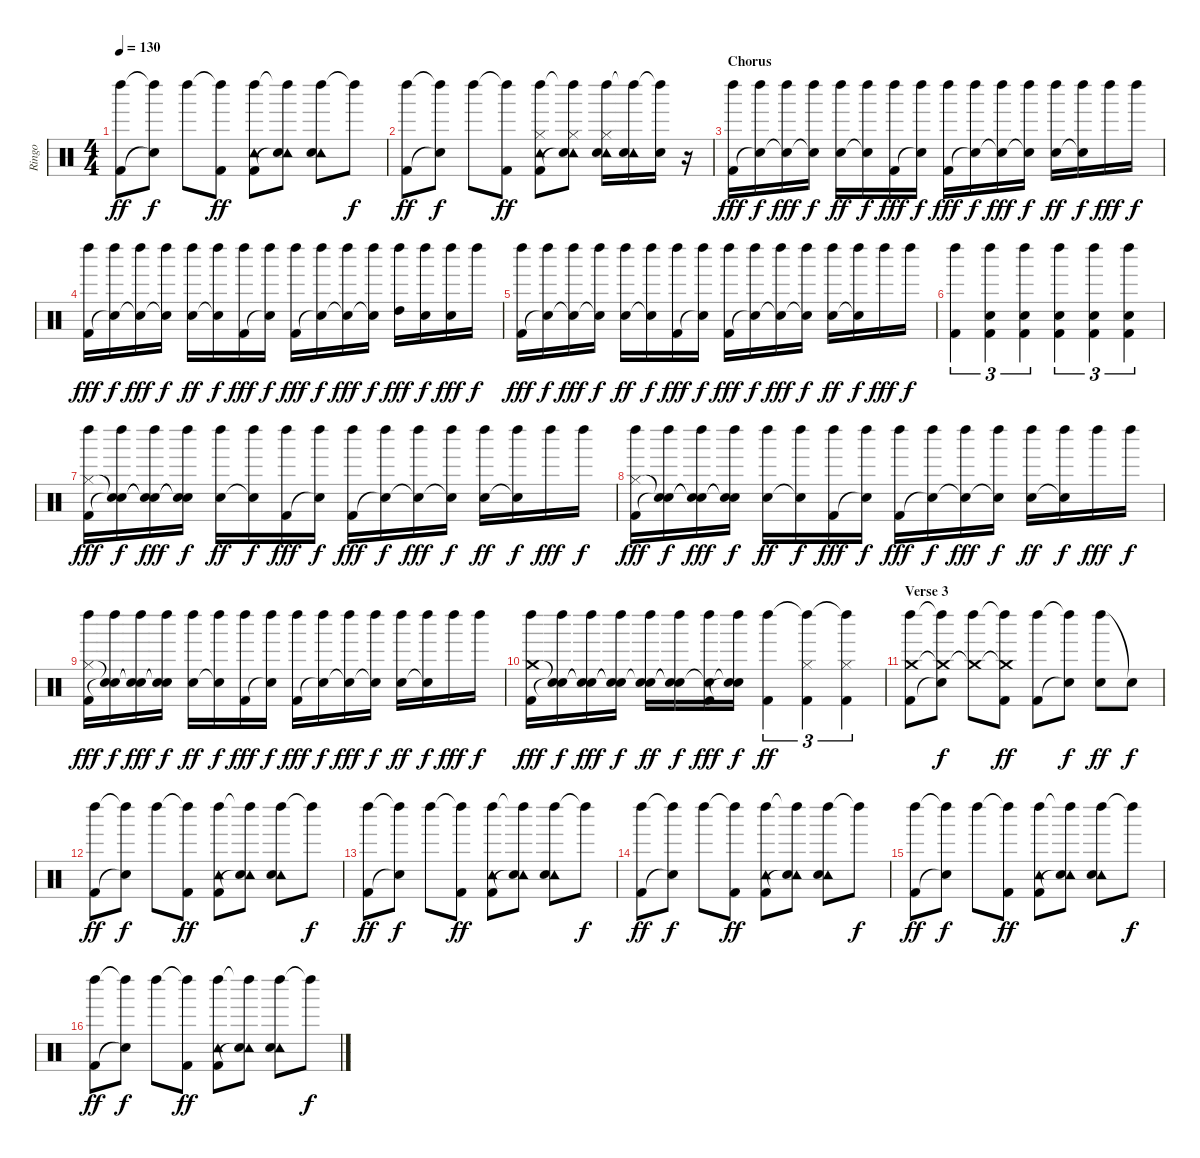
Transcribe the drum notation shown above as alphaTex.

\track ("Ringo" "Ringo") {instrument percussion}
\staff {score}
\articulation defaults
\ts (4 4)
\tempo 130
\clef neutral
\ks c
("Left Maraca (hit)" "Kick (hit) 2").8{dy ff} ("Left Maraca (hit)"{t} "Snare (hit)"{t}).8{dy f} "Left Maraca (hit)".8 ("Left Maraca (hit)"{t} "Kick (hit) 2").8{dy ff} ("Left Maraca (hit)" "Tambourine (hit)" "Kick (hit) 2").8 ("Left Maraca (hit)"{t} "Tambourine (hit)" "Snare (hit)"{t}).8 ("Left Maraca (hit)" "Tambourine (hit)" "Electric Snare (hit)").8 "Left Maraca (hit)"{t}.8{dy f} |
("Left Maraca (hit)" "Kick (hit) 2").8{dy ff} ("Left Maraca (hit)"{t} "Snare (hit)"{t}).8{dy f} "Left Maraca (hit)".8 ("Left Maraca (hit)"{t} "Kick (hit) 2").8{dy ff} ("Left Maraca (hit)" "Tambourine (hit)" "Hi-Hat (closed)" "Kick (hit) 2").8 ("Left Maraca (hit)"{t} "Tambourine (hit)" "Hi-Hat (closed)" "Snare (hit)"{t}).8 ("Left Maraca (hit)" "Tambourine (hit)" "Hi-Hat (closed)" "Electric Snare (hit)").16 ("Left Maraca (hit)"{t} "Tambourine (hit)" "Electric Snare (hit)").16 ("Left Maraca (hit)"{t} "Electric Snare (hit)").16 r.16 |
\section ("" "Chorus")
("Left Maraca (hit)" "Kick (hit) 2").16{dy fff} ("Left Maraca (hit)" "Snare (hit)"{t}).16{dy f} ("Left Maraca (hit)" "Snare (hit)"{t}).16{dy fff} ("Left Maraca (hit)" "Snare (hit)"{t}).16{dy f} ("Left Maraca (hit)" "Electric Snare (hit)").16{dy ff} ("Left Maraca (hit)" "Snare (hit)"{t}).16{dy f} ("Left Maraca (hit)" "Kick (hit) 2").16{dy fff} ("Left Maraca (hit)" "Snare (hit)"{t}).16{dy f} ("Left Maraca (hit)" "Kick (hit) 2").16{dy fff} ("Left Maraca (hit)" "Snare (hit)"{t}).16{dy f} ("Left Maraca (hit)" "Snare (hit)"{t}).16{dy fff} ("Left Maraca (hit)" "Snare (hit)"{t}).16{dy f} ("Left Maraca (hit)" "Electric Snare (hit)").16{dy ff} ("Left Maraca (hit)" "Snare (hit)"{t}).16{dy f} "Left Maraca (hit)".16{dy fff} "Left Maraca (hit)".16{dy f} |
("Left Maraca (hit)" "Kick (hit) 2").16{dy fff} ("Left Maraca (hit)" "Snare (hit)"{t}).16{dy f} ("Left Maraca (hit)" "Snare (hit)"{t}).16{dy fff} ("Left Maraca (hit)" "Snare (hit)"{t}).16{dy f} ("Left Maraca (hit)" "Electric Snare (hit)").16{dy ff} ("Left Maraca (hit)" "Snare (hit)"{t}).16{dy f} ("Left Maraca (hit)" "Kick (hit) 2").16{dy fff} ("Left Maraca (hit)" "Snare (hit)"{t}).16{dy f} ("Left Maraca (hit)" "Kick (hit) 2").16{dy fff} ("Left Maraca (hit)" "Snare (hit)"{t}).16{dy f} ("Left Maraca (hit)" "Snare (hit)"{t}).16{dy fff} ("Left Maraca (hit)" "Snare (hit)"{t}).16{dy f} ("Left Maraca (hit)" "High Tom (hit)").16{dy fff} ("Left Maraca (hit)" "Electric Snare (hit)").16{dy f} ("Left Maraca (hit)" "Electric Snare (hit)").16{dy fff} "Left Maraca (hit)".16{dy f} |
("Left Maraca (hit)" "Kick (hit) 2").16{dy fff} ("Left Maraca (hit)" "Snare (hit)"{t}).16{dy f} ("Left Maraca (hit)" "Snare (hit)"{t}).16{dy fff} ("Left Maraca (hit)" "Snare (hit)"{t}).16{dy f} ("Left Maraca (hit)" "Electric Snare (hit)").16{dy ff} ("Left Maraca (hit)" "Snare (hit)"{t}).16{dy f} ("Left Maraca (hit)" "Kick (hit) 2").16{dy fff} ("Left Maraca (hit)" "Snare (hit)"{t}).16{dy f} ("Left Maraca (hit)" "Kick (hit) 2").16{dy fff} ("Left Maraca (hit)" "Snare (hit)"{t}).16{dy f} ("Left Maraca (hit)" "Snare (hit)"{t}).16{dy fff} ("Left Maraca (hit)" "Snare (hit)"{t}).16{dy f} ("Left Maraca (hit)" "Electric Snare (hit)").16{dy ff} ("Left Maraca (hit)" "Snare (hit)"{t}).16{dy f} "Left Maraca (hit)".16{dy fff} "Left Maraca (hit)".16{dy f} |
("Left Maraca (hit)" "Kick (hit) 2").4{tu (3 2)} ("Left Maraca (hit)" "Electric Snare (hit)" "Kick (hit) 2").4{tu (3 2)} ("Left Maraca (hit)" "Electric Snare (hit)" "Kick (hit) 2").4{tu (3 2)} ("Left Maraca (hit)" "Electric Snare (hit)" "Kick (hit) 2").4{tu (3 2)} ("Left Maraca (hit)" "Electric Snare (hit)" "Kick (hit) 2").4{tu (3 2)} ("Left Maraca (hit)" "Electric Snare (hit)" "Kick (hit) 2").4{tu (3 2)} |
("Left Maraca (hit)" "Hi-Hat (closed)" "Kick (hit) 2").16{dy fff} ("Left Maraca (hit)" "Snare (hit)"{t} "Snare (hit)"{t}).16{dy f} ("Left Maraca (hit)" "Snare (hit)"{t} "Snare (hit)"{t}).16{dy fff} ("Left Maraca (hit)" "Snare (hit)"{t} "Snare (hit)"{t}).16{dy f} ("Left Maraca (hit)" "Electric Snare (hit)").16{dy ff} ("Left Maraca (hit)" "Snare (hit)"{t}).16{dy f} ("Left Maraca (hit)" "Kick (hit) 2").16{dy fff} ("Left Maraca (hit)" "Snare (hit)"{t}).16{dy f} ("Left Maraca (hit)" "Kick (hit) 2").16{dy fff} ("Left Maraca (hit)" "Snare (hit)"{t}).16{dy f} ("Left Maraca (hit)" "Snare (hit)"{t}).16{dy fff} ("Left Maraca (hit)" "Snare (hit)"{t}).16{dy f} ("Left Maraca (hit)" "Electric Snare (hit)").16{dy ff} ("Left Maraca (hit)" "Snare (hit)"{t}).16{dy f} "Left Maraca (hit)".16{dy fff} "Left Maraca (hit)".16{dy f} |
("Left Maraca (hit)" "Hi-Hat (closed)" "Kick (hit) 2").16{dy fff} ("Left Maraca (hit)" "Snare (hit)"{t} "Snare (hit)"{t}).16{dy f} ("Left Maraca (hit)" "Snare (hit)"{t} "Snare (hit)"{t}).16{dy fff} ("Left Maraca (hit)" "Snare (hit)"{t} "Snare (hit)"{t}).16{dy f} ("Left Maraca (hit)" "Electric Snare (hit)").16{dy ff} ("Left Maraca (hit)" "Snare (hit)"{t}).16{dy f} ("Left Maraca (hit)" "Kick (hit) 2").16{dy fff} ("Left Maraca (hit)" "Snare (hit)"{t}).16{dy f} ("Left Maraca (hit)" "Kick (hit) 2").16{dy fff} ("Left Maraca (hit)" "Snare (hit)"{t}).16{dy f} ("Left Maraca (hit)" "Snare (hit)"{t}).16{dy fff} ("Left Maraca (hit)" "Snare (hit)"{t}).16{dy f} ("Left Maraca (hit)" "Electric Snare (hit)").16{dy ff} ("Left Maraca (hit)" "Snare (hit)"{t}).16{dy f} "Left Maraca (hit)".16{dy fff} "Left Maraca (hit)".16{dy f} |
("Left Maraca (hit)" "Hi-Hat (closed)" "Kick (hit) 2").16{dy fff} ("Left Maraca (hit)" "Snare (hit)"{t} "Snare (hit)"{t}).16{dy f} ("Left Maraca (hit)" "Snare (hit)"{t} "Snare (hit)"{t}).16{dy fff} ("Left Maraca (hit)" "Snare (hit)"{t} "Snare (hit)"{t}).16{dy f} ("Left Maraca (hit)" "Electric Snare (hit)").16{dy ff} ("Left Maraca (hit)" "Snare (hit)"{t}).16{dy f} ("Left Maraca (hit)" "Kick (hit) 2").16{dy fff} ("Left Maraca (hit)" "Snare (hit)"{t}).16{dy f} ("Left Maraca (hit)" "Kick (hit) 2").16{dy fff} ("Left Maraca (hit)" "Snare (hit)"{t}).16{dy f} ("Left Maraca (hit)" "Snare (hit)"{t}).16{dy fff} ("Left Maraca (hit)" "Snare (hit)"{t}).16{dy f} ("Left Maraca (hit)" "Electric Snare (hit)").16{dy ff} ("Left Maraca (hit)" "Snare (hit)"{t}).16{dy f} "Left Maraca (hit)".16{dy fff} "Left Maraca (hit)".16{dy f} |
("Left Maraca (hit)" "Crash medium (hit)" "Kick (hit) 2").16{dy fff} ("Left Maraca (hit)" "Snare (hit)"{t} "Snare (hit)"{t}).16{dy f} ("Left Maraca (hit)" "Snare (hit)"{t} "Snare (hit)"{t}).16{dy fff} ("Left Maraca (hit)" "Snare (hit)"{t} "Snare (hit)"{t}).16{dy f} ("Left Maraca (hit)" "Snare (hit)"{t} "Electric Snare (hit)").16{dy ff} ("Left Maraca (hit)" "Snare (hit)"{t} "Snare (hit)"{t}).16{dy f} ("Left Maraca (hit)" "Snare (hit)"{t} "Kick (hit) 2").16{dy fff} ("Left Maraca (hit)" "Snare (hit)"{t} "Snare (hit)"{t}).16{dy f} ("Left Maraca (hit)" "Kick (hit) 2").4{tu (3 2) dy ff} ("Left Maraca (hit)"{t} "Hi-Hat (closed)" "Kick (hit) 2").4{tu (3 2)} ("Left Maraca (hit)"{t} "Hi-Hat (closed)" "Kick (hit) 2").4{tu (3 2)} |
\section ("" "Verse 3")
("Left Maraca (hit)" "Crash medium (hit)" "Kick (hit) 2").8 ("Left Maraca (hit)"{t} "Crash medium (hit)"{t} "Snare (hit)"{t}).8{dy f} ("Left Maraca (hit)" "Crash medium (hit)"{t}).8 ("Left Maraca (hit)"{t} "Crash medium (hit)"{t} "Kick (hit) 2").8{dy ff} ("Left Maraca (hit)" "Kick (hit) 2").8 ("Left Maraca (hit)"{t} "Snare (hit)"{t}).8{dy f} ("Left Maraca (hit)" "Electric Snare (hit)").8{dy ff} "Snare (hit)"{t}.8{dy f} |
("Left Maraca (hit)" "Kick (hit) 2").8{dy ff} ("Left Maraca (hit)"{t} "Snare (hit)"{t}).8{dy f} "Left Maraca (hit)".8 ("Left Maraca (hit)"{t} "Kick (hit) 2").8{dy ff} ("Left Maraca (hit)" "Tambourine (hit)" "Kick (hit) 2").8 ("Left Maraca (hit)"{t} "Tambourine (hit)" "Snare (hit)"{t}).8 ("Left Maraca (hit)" "Tambourine (hit)" "Electric Snare (hit)").8 "Left Maraca (hit)"{t}.8{dy f} |
("Left Maraca (hit)" "Kick (hit) 2").8{dy ff} ("Left Maraca (hit)"{t} "Snare (hit)"{t}).8{dy f} "Left Maraca (hit)".8 ("Left Maraca (hit)"{t} "Kick (hit) 2").8{dy ff} ("Left Maraca (hit)" "Tambourine (hit)" "Kick (hit) 2").8 ("Left Maraca (hit)"{t} "Tambourine (hit)" "Snare (hit)"{t}).8 ("Left Maraca (hit)" "Tambourine (hit)" "Electric Snare (hit)").8 "Left Maraca (hit)"{t}.8{dy f} |
("Left Maraca (hit)" "Kick (hit) 2").8{dy ff} ("Left Maraca (hit)"{t} "Snare (hit)"{t}).8{dy f} "Left Maraca (hit)".8 ("Left Maraca (hit)"{t} "Kick (hit) 2").8{dy ff} ("Left Maraca (hit)" "Tambourine (hit)" "Kick (hit) 2").8 ("Left Maraca (hit)"{t} "Tambourine (hit)" "Snare (hit)"{t}).8 ("Left Maraca (hit)" "Tambourine (hit)" "Electric Snare (hit)").8 "Left Maraca (hit)"{t}.8{dy f} |
("Left Maraca (hit)" "Kick (hit) 2").8{dy ff} ("Left Maraca (hit)"{t} "Snare (hit)"{t}).8{dy f} "Left Maraca (hit)".8 ("Left Maraca (hit)"{t} "Kick (hit) 2").8{dy ff} ("Left Maraca (hit)" "Tambourine (hit)" "Kick (hit) 2").8 ("Left Maraca (hit)"{t} "Tambourine (hit)" "Snare (hit)"{t}).8 ("Left Maraca (hit)" "Tambourine (hit)" "Electric Snare (hit)").8 "Left Maraca (hit)"{t}.8{dy f} |
("Left Maraca (hit)" "Kick (hit) 2").8{dy ff} ("Left Maraca (hit)"{t} "Snare (hit)"{t}).8{dy f} "Left Maraca (hit)".8 ("Left Maraca (hit)"{t} "Kick (hit) 2").8{dy ff} ("Left Maraca (hit)" "Tambourine (hit)" "Kick (hit) 2").8 ("Left Maraca (hit)"{t} "Tambourine (hit)" "Snare (hit)"{t}).8 ("Left Maraca (hit)" "Tambourine (hit)" "Electric Snare (hit)").8 "Left Maraca (hit)"{t}.8{dy f}
